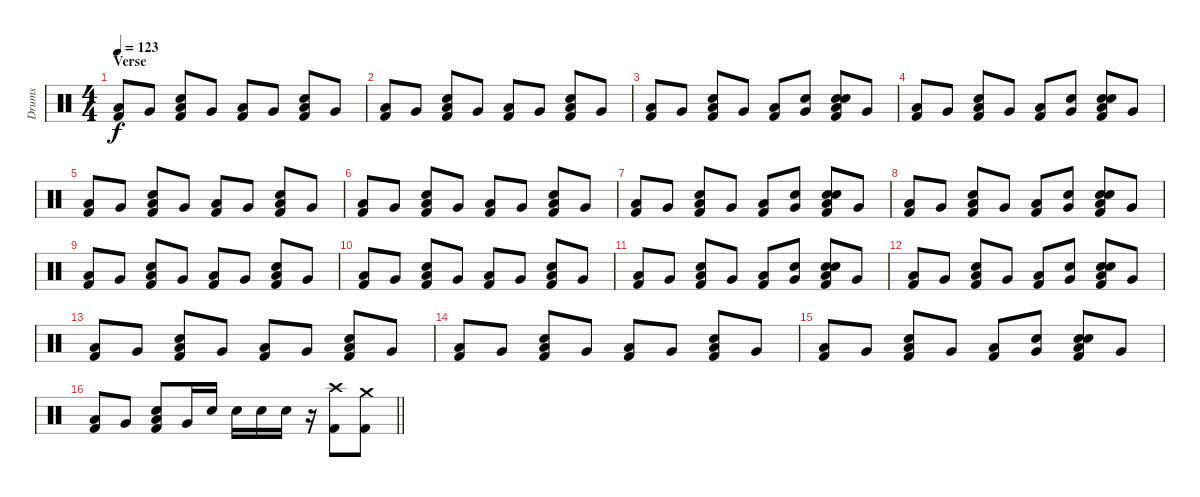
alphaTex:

\track ("Drums" "Drums") {instrument percussion}
\staff {score}
\articulation defaults
\ts (4 4)
\section ("" "Verse")
\tempo 123
\clef neutral
\ks c
("Low Tom (hit)" "Kick (hit) 2").8{dy f} "Very Low Tom (hit)".8 ("Electric Snare (hit)" "Low Tom (hit)" "Kick (hit) 2").8 "Very Low Tom (hit)".8 ("Low Tom (hit)" "Kick (hit) 2").8 "Very Low Tom (hit)".8 ("Electric Snare (hit)" "Low Tom (hit)" "Kick (hit) 2").8 "Very Low Tom (hit)".8 |
("Low Tom (hit)" "Kick (hit) 2").8 "Very Low Tom (hit)".8 ("Electric Snare (hit)" "Low Tom (hit)" "Kick (hit) 2").8 "Very Low Tom (hit)".8 ("Low Tom (hit)" "Kick (hit) 2").8 "Very Low Tom (hit)".8 ("Electric Snare (hit)" "Low Tom (hit)" "Kick (hit) 2").8 "Very Low Tom (hit)".8 |
("Low Tom (hit)" "Kick (hit) 2").8 "Very Low Tom (hit)".8 ("Electric Snare (hit)" "Low Tom (hit)" "Kick (hit) 2").8 "Very Low Tom (hit)".8 ("Low Tom (hit)" "Kick (hit) 2").8 ("Hand Clap (hit)" "Very Low Tom (hit)").8 ("Hand Clap (hit)" "Electric Snare (hit)" "Low Tom (hit)" "Kick (hit) 2").8 "Very Low Tom (hit)".8 |
("Low Tom (hit)" "Kick (hit) 2").8 "Very Low Tom (hit)".8 ("Electric Snare (hit)" "Low Tom (hit)" "Kick (hit) 2").8 "Very Low Tom (hit)".8 ("Low Tom (hit)" "Kick (hit) 2").8 ("Hand Clap (hit)" "Very Low Tom (hit)").8 ("Hand Clap (hit)" "Electric Snare (hit)" "Low Tom (hit)" "Kick (hit) 2").8 "Very Low Tom (hit)".8 |
("Low Tom (hit)" "Kick (hit) 2").8 "Very Low Tom (hit)".8 ("Electric Snare (hit)" "Low Tom (hit)" "Kick (hit) 2").8 "Very Low Tom (hit)".8 ("Low Tom (hit)" "Kick (hit) 2").8 "Very Low Tom (hit)".8 ("Electric Snare (hit)" "Low Tom (hit)" "Kick (hit) 2").8 "Very Low Tom (hit)".8 |
("Low Tom (hit)" "Kick (hit) 2").8 "Very Low Tom (hit)".8 ("Electric Snare (hit)" "Low Tom (hit)" "Kick (hit) 2").8 "Very Low Tom (hit)".8 ("Low Tom (hit)" "Kick (hit) 2").8 "Very Low Tom (hit)".8 ("Electric Snare (hit)" "Low Tom (hit)" "Kick (hit) 2").8 "Very Low Tom (hit)".8 |
("Low Tom (hit)" "Kick (hit) 2").8 "Very Low Tom (hit)".8 ("Electric Snare (hit)" "Low Tom (hit)" "Kick (hit) 2").8 "Very Low Tom (hit)".8 ("Low Tom (hit)" "Kick (hit) 2").8 ("Hand Clap (hit)" "Very Low Tom (hit)").8 ("Hand Clap (hit)" "Electric Snare (hit)" "Low Tom (hit)" "Kick (hit) 2").8 "Very Low Tom (hit)".8 |
("Low Tom (hit)" "Kick (hit) 2").8 "Very Low Tom (hit)".8 ("Electric Snare (hit)" "Low Tom (hit)" "Kick (hit) 2").8 "Very Low Tom (hit)".8 ("Low Tom (hit)" "Kick (hit) 2").8 ("Hand Clap (hit)" "Very Low Tom (hit)").8 ("Hand Clap (hit)" "Electric Snare (hit)" "Low Tom (hit)" "Kick (hit) 2").8 "Very Low Tom (hit)".8 |
("Low Tom (hit)" "Kick (hit) 2").8 "Very Low Tom (hit)".8 ("Electric Snare (hit)" "Low Tom (hit)" "Kick (hit) 2").8 "Very Low Tom (hit)".8 ("Low Tom (hit)" "Kick (hit) 2").8 "Very Low Tom (hit)".8 ("Electric Snare (hit)" "Low Tom (hit)" "Kick (hit) 2").8 "Very Low Tom (hit)".8 |
("Low Tom (hit)" "Kick (hit) 2").8 "Very Low Tom (hit)".8 ("Electric Snare (hit)" "Low Tom (hit)" "Kick (hit) 2").8 "Very Low Tom (hit)".8 ("Low Tom (hit)" "Kick (hit) 2").8 "Very Low Tom (hit)".8 ("Electric Snare (hit)" "Low Tom (hit)" "Kick (hit) 2").8 "Very Low Tom (hit)".8 |
("Low Tom (hit)" "Kick (hit) 2").8 "Very Low Tom (hit)".8 ("Electric Snare (hit)" "Low Tom (hit)" "Kick (hit) 2").8 "Very Low Tom (hit)".8 ("Low Tom (hit)" "Kick (hit) 2").8 ("Hand Clap (hit)" "Very Low Tom (hit)").8 ("Hand Clap (hit)" "Electric Snare (hit)" "Low Tom (hit)" "Kick (hit) 2").8 "Very Low Tom (hit)".8 |
("Low Tom (hit)" "Kick (hit) 2").8 "Very Low Tom (hit)".8 ("Electric Snare (hit)" "Low Tom (hit)" "Kick (hit) 2").8 "Very Low Tom (hit)".8 ("Low Tom (hit)" "Kick (hit) 2").8 ("Hand Clap (hit)" "Very Low Tom (hit)").8 ("Hand Clap (hit)" "Electric Snare (hit)" "Low Tom (hit)" "Kick (hit) 2").8 "Very Low Tom (hit)".8 |
("Low Tom (hit)" "Kick (hit) 2").8 "Very Low Tom (hit)".8 ("Electric Snare (hit)" "Low Tom (hit)" "Kick (hit) 2").8 "Very Low Tom (hit)".8 ("Low Tom (hit)" "Kick (hit) 2").8 "Very Low Tom (hit)".8 ("Electric Snare (hit)" "Low Tom (hit)" "Kick (hit) 2").8 "Very Low Tom (hit)".8 |
("Low Tom (hit)" "Kick (hit) 2").8 "Very Low Tom (hit)".8 ("Electric Snare (hit)" "Low Tom (hit)" "Kick (hit) 2").8 "Very Low Tom (hit)".8 ("Low Tom (hit)" "Kick (hit) 2").8 "Very Low Tom (hit)".8 ("Electric Snare (hit)" "Low Tom (hit)" "Kick (hit) 2").8 "Very Low Tom (hit)".8 |
("Low Tom (hit)" "Kick (hit) 2").8 "Very Low Tom (hit)".8 ("Electric Snare (hit)" "Low Tom (hit)" "Kick (hit) 2").8 "Very Low Tom (hit)".8 ("Low Tom (hit)" "Kick (hit) 2").8 ("Hand Clap (hit)" "Very Low Tom (hit)").8 ("Hand Clap (hit)" "Electric Snare (hit)" "Low Tom (hit)" "Kick (hit) 2").8 "Very Low Tom (hit)".8 |
\barLineRight lightlight
("Low Tom (hit)" "Kick (hit) 2").8 "Very Low Tom (hit)".8 ("Electric Snare (hit)" "Low Tom (hit)" "Kick (hit) 2").8 "Very Low Tom (hit)".16 "Electric Snare (hit)".16 "Electric Snare (hit)".16 "Electric Snare (hit)".16 "Electric Snare (hit)".16 r.16 ("Crash high (hit)" "Kick (hit) 2").8 ("Crash medium (hit)" "Kick (hit) 2").8
